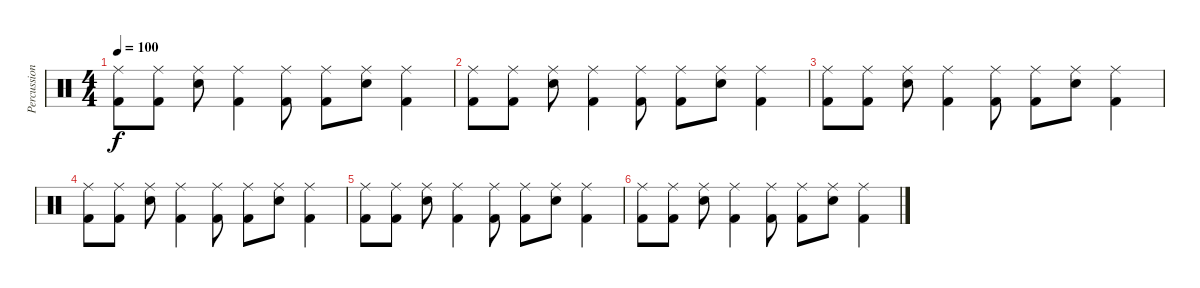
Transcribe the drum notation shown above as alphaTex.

\track ("Percussion" "Percussion") {instrument percussion}
\staff {score}
\articulation defaults
\ts (4 4)
\tempo 100
\clef neutral
\ks c
("Ride (middle)" "Kick (hit) 2").8{dy f} ("Ride (middle)" "Kick (hit) 2").8 ("Ride (middle)" "Electric Snare (hit)").8 ("Ride (middle)" "Kick (hit) 2").4 ("Ride (middle)" "Kick (hit) 2").8 ("Ride (middle)" "Kick (hit) 2").8 ("Ride (middle)" "Electric Snare (hit)").8 ("Ride (middle)" "Kick (hit) 2").4 |
("Ride (middle)" "Kick (hit) 2").8 ("Ride (middle)" "Kick (hit) 2").8 ("Ride (middle)" "Electric Snare (hit)").8 ("Ride (middle)" "Kick (hit) 2").4 ("Ride (middle)" "Kick (hit) 2").8 ("Ride (middle)" "Kick (hit) 2").8 ("Ride (middle)" "Electric Snare (hit)").8 ("Ride (middle)" "Kick (hit) 2").4 |
("Ride (middle)" "Kick (hit) 2").8 ("Ride (middle)" "Kick (hit) 2").8 ("Ride (middle)" "Electric Snare (hit)").8 ("Ride (middle)" "Kick (hit) 2").4 ("Ride (middle)" "Kick (hit) 2").8 ("Ride (middle)" "Kick (hit) 2").8 ("Ride (middle)" "Electric Snare (hit)").8 ("Ride (middle)" "Kick (hit) 2").4 |
("Ride (middle)" "Kick (hit) 2").8 ("Ride (middle)" "Kick (hit) 2").8 ("Ride (middle)" "Electric Snare (hit)").8 ("Ride (middle)" "Kick (hit) 2").4 ("Ride (middle)" "Kick (hit) 2").8 ("Ride (middle)" "Kick (hit) 2").8 ("Ride (middle)" "Electric Snare (hit)").8 ("Ride (middle)" "Kick (hit) 2").4 |
("Ride (middle)" "Kick (hit) 2").8 ("Ride (middle)" "Kick (hit) 2").8 ("Ride (middle)" "Electric Snare (hit)").8 ("Ride (middle)" "Kick (hit) 2").4 ("Ride (middle)" "Kick (hit) 2").8 ("Ride (middle)" "Kick (hit) 2").8 ("Ride (middle)" "Electric Snare (hit)").8 ("Ride (middle)" "Kick (hit) 2").4 |
("Ride (middle)" "Kick (hit) 2").8 ("Ride (middle)" "Kick (hit) 2").8 ("Ride (middle)" "Electric Snare (hit)").8 ("Ride (middle)" "Kick (hit) 2").4 ("Ride (middle)" "Kick (hit) 2").8 ("Ride (middle)" "Kick (hit) 2").8 ("Ride (middle)" "Electric Snare (hit)").8 ("Ride (middle)" "Kick (hit) 2").4
